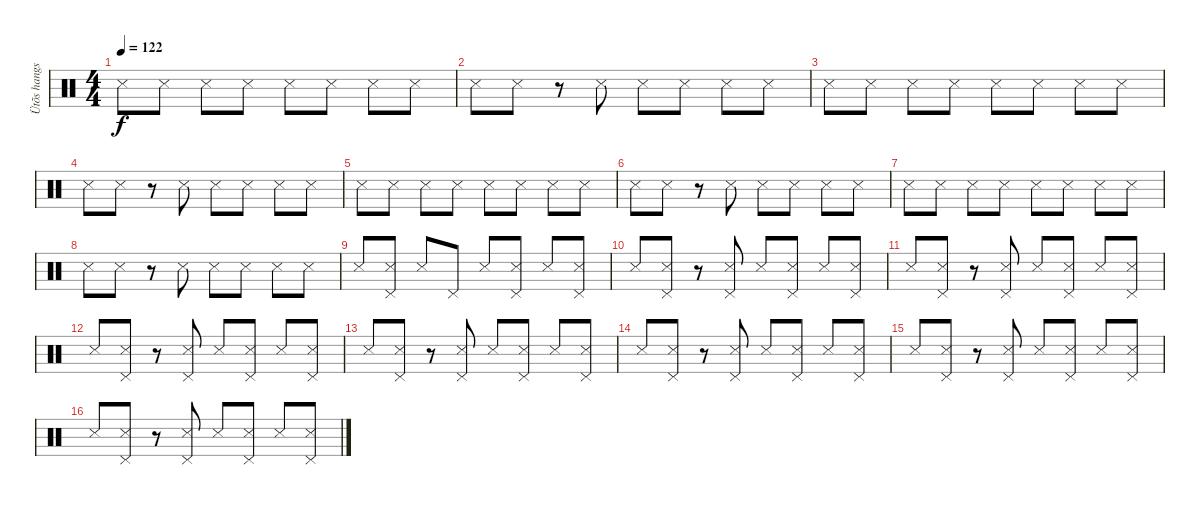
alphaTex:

\track ("Ütõs hangszer" "Ütõs hangs") {instrument percussion}
\staff {score}
\articulation defaults
\ts (4 4)
\tempo 122
\clef neutral
\ks c "Snare (side stick) 3".8{dy f} "Snare (side stick) 3".8 "Snare (side stick) 3".8 "Snare (side stick) 3".8 "Snare (side stick) 3".8 "Snare (side stick) 3".8 "Snare (side stick) 3".8 "Snare (side stick) 3".8
|
"Snare (side stick) 3".8 "Snare (side stick) 3".8 r.8 "Snare (side stick) 3".8 "Snare (side stick) 3".8 "Snare (side stick) 3".8 "Snare (side stick) 3".8 "Snare (side stick) 3".8 |
"Snare (side stick) 3".8 "Snare (side stick) 3".8 "Snare (side stick) 3".8 "Snare (side stick) 3".8 "Snare (side stick) 3".8 "Snare (side stick) 3".8 "Snare (side stick) 3".8 "Snare (side stick) 3".8 |
"Snare (side stick) 3".8 "Snare (side stick) 3".8 r.8 "Snare (side stick) 3".8 "Snare (side stick) 3".8 "Snare (side stick) 3".8 "Snare (side stick) 3".8 "Snare (side stick) 3".8 |
"Snare (side stick) 3".8 "Snare (side stick) 3".8 "Snare (side stick) 3".8 "Snare (side stick) 3".8 "Snare (side stick) 3".8 "Snare (side stick) 3".8 "Snare (side stick) 3".8 "Snare (side stick) 3".8 |
"Snare (side stick) 3".8 "Snare (side stick) 3".8 r.8 "Snare (side stick) 3".8 "Snare (side stick) 3".8 "Snare (side stick) 3".8 "Snare (side stick) 3".8 "Snare (side stick) 3".8 |
"Snare (side stick) 3".8 "Snare (side stick) 3".8 "Snare (side stick) 3".8 "Snare (side stick) 3".8 "Snare (side stick) 3".8 "Snare (side stick) 3".8 "Snare (side stick) 3".8 "Snare (side stick) 3".8 |
"Snare (side stick) 3".8 "Snare (side stick) 3".8 r.8 "Snare (side stick) 3".8 "Snare (side stick) 3".8 "Snare (side stick) 3".8 "Snare (side stick) 3".8 "Snare (side stick) 3".8 |
"Snare (side stick) 3".8 ("Snare (side stick) 3" "Pedal Hi-Hat (hit)").8 "Snare (side stick) 3".8 "Pedal Hi-Hat (hit)".8 "Snare (side stick) 3".8 ("Snare (side stick) 3" "Pedal Hi-Hat (hit)").8 "Snare (side stick) 3".8 ("Snare (side stick) 3" "Pedal Hi-Hat (hit)").8 |
"Snare (side stick) 3".8 ("Snare (side stick) 3" "Pedal Hi-Hat (hit)").8 r.8 ("Snare (side stick) 3" "Pedal Hi-Hat (hit)").8 "Snare (side stick) 3".8 ("Snare (side stick) 3" "Pedal Hi-Hat (hit)").8 "Snare (side stick) 3".8 ("Snare (side stick) 3" "Pedal Hi-Hat (hit)").8 |
"Snare (side stick) 3".8 ("Snare (side stick) 3" "Pedal Hi-Hat (hit)").8 r.8 ("Snare (side stick) 3" "Pedal Hi-Hat (hit)").8 "Snare (side stick) 3".8 ("Snare (side stick) 3" "Pedal Hi-Hat (hit)").8 "Snare (side stick) 3".8 ("Snare (side stick) 3" "Pedal Hi-Hat (hit)").8 |
"Snare (side stick) 3".8 ("Snare (side stick) 3" "Pedal Hi-Hat (hit)").8 r.8 ("Snare (side stick) 3" "Pedal Hi-Hat (hit)").8 "Snare (side stick) 3".8 ("Snare (side stick) 3" "Pedal Hi-Hat (hit)").8 "Snare (side stick) 3".8 ("Snare (side stick) 3" "Pedal Hi-Hat (hit)").8 |
"Snare (side stick) 3".8 ("Snare (side stick) 3" "Pedal Hi-Hat (hit)").8 r.8 ("Snare (side stick) 3" "Pedal Hi-Hat (hit)").8 "Snare (side stick) 3".8 ("Snare (side stick) 3" "Pedal Hi-Hat (hit)").8 "Snare (side stick) 3".8 ("Snare (side stick) 3" "Pedal Hi-Hat (hit)").8 |
"Snare (side stick) 3".8 ("Snare (side stick) 3" "Pedal Hi-Hat (hit)").8 r.8 ("Snare (side stick) 3" "Pedal Hi-Hat (hit)").8 "Snare (side stick) 3".8 ("Snare (side stick) 3" "Pedal Hi-Hat (hit)").8 "Snare (side stick) 3".8 ("Snare (side stick) 3" "Pedal Hi-Hat (hit)").8 |
"Snare (side stick) 3".8 ("Snare (side stick) 3" "Pedal Hi-Hat (hit)").8 r.8 ("Snare (side stick) 3" "Pedal Hi-Hat (hit)").8 "Snare (side stick) 3".8 ("Snare (side stick) 3" "Pedal Hi-Hat (hit)").8 "Snare (side stick) 3".8 ("Snare (side stick) 3" "Pedal Hi-Hat (hit)").8 |
"Snare (side stick) 3".8 ("Snare (side stick) 3" "Pedal Hi-Hat (hit)").8 r.8 ("Snare (side stick) 3" "Pedal Hi-Hat (hit)").8 "Snare (side stick) 3".8 ("Snare (side stick) 3" "Pedal Hi-Hat (hit)").8 "Snare (side stick) 3".8 ("Snare (side stick) 3" "Pedal Hi-Hat (hit)").8
